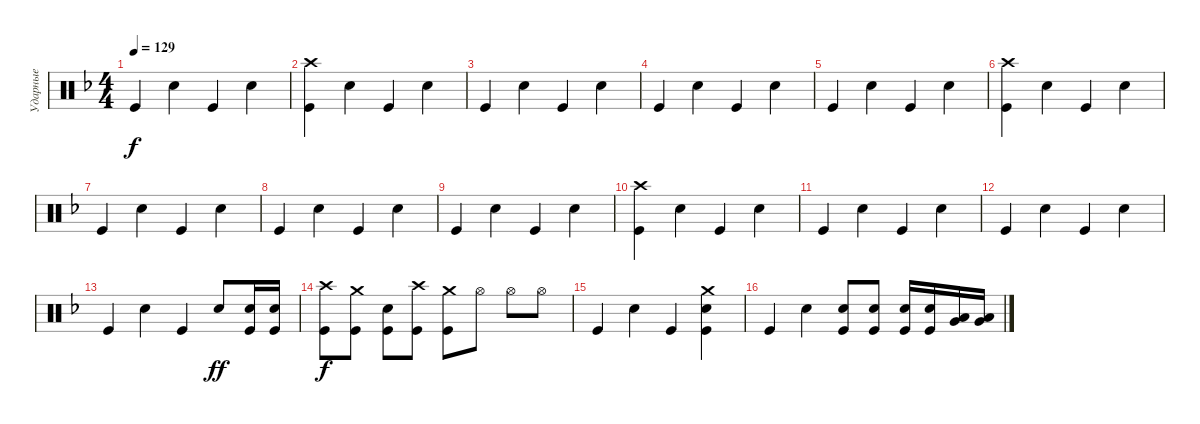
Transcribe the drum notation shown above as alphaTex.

\track ("Ударные" "Ударные") {instrument percussion}
\staff {score}
\articulation defaults
\ts (4 4)
\tempo 129
\clef neutral
\ks dminor "Kick (hit)".4{dy f} "Snare (hit) 2".4 "Kick (hit)".4 "Snare (hit) 2".4
|
("Crash high (hit)" "Kick (hit)").4 "Snare (hit) 2".4 "Kick (hit)".4 "Snare (hit) 2".4 |
"Kick (hit)".4 "Snare (hit) 2".4 "Kick (hit)".4 "Snare (hit) 2".4 |
"Kick (hit)".4 "Snare (hit) 2".4 "Kick (hit)".4 "Snare (hit) 2".4 |
"Kick (hit)".4 "Snare (hit) 2".4 "Kick (hit)".4 "Snare (hit) 2".4 |
("Crash high (hit)" "Kick (hit)").4 "Snare (hit) 2".4 "Kick (hit)".4 "Snare (hit) 2".4 |
"Kick (hit)".4 "Snare (hit) 2".4 "Kick (hit)".4 "Snare (hit) 2".4 |
"Kick (hit)".4 "Snare (hit) 2".4 "Kick (hit)".4 "Snare (hit) 2".4 |
"Kick (hit)".4 "Snare (hit) 2".4 "Kick (hit)".4 "Snare (hit) 2".4 |
("Crash high (hit)" "Kick (hit)").4 "Snare (hit) 2".4 "Kick (hit)".4 "Snare (hit) 2".4 |
"Kick (hit)".4 "Snare (hit) 2".4 "Kick (hit)".4 "Snare (hit) 2".4 |
"Kick (hit)".4 "Snare (hit) 2".4 "Kick (hit)".4 "Snare (hit) 2".4 |
"Kick (hit)".4 "Snare (hit) 2".4 "Kick (hit)".4 "Snare (hit) 2".8{dy ff} ("Snare (hit) 2" "Kick (hit)").16 ("Snare (hit) 2" "Kick (hit)").16 |
("Kick (hit)" "Crash high (hit)").8{dy f} ("Crash medium (hit)" "Kick (hit)").8 ("Snare (hit) 2" "Kick (hit)").8 ("Crash high (hit)" "Kick (hit)").8 ("Crash medium (hit)" "Kick (hit)").8 "Hi-Hat (open)".8 "Hi-Hat (open)".8 "Hi-Hat (open)".8 |
"Kick (hit)".4 "Snare (hit) 2".4 "Kick (hit)".4 ("Crash medium (hit)" "Snare (hit) 2" "Kick (hit)").4 |
"Kick (hit)".4 "Snare (hit) 2".4 ("Snare (hit) 2" "Kick (hit)").8 ("Snare (hit) 2" "Kick (hit)").8 ("Snare (hit) 2" "Kick (hit)").16 ("Snare (hit) 2" "Kick (hit)").16 ("Low Floor Tom (hit)" "Very Low Tom (hit)").16 ("Very Low Tom (hit)" "Low Tom (hit)").16
